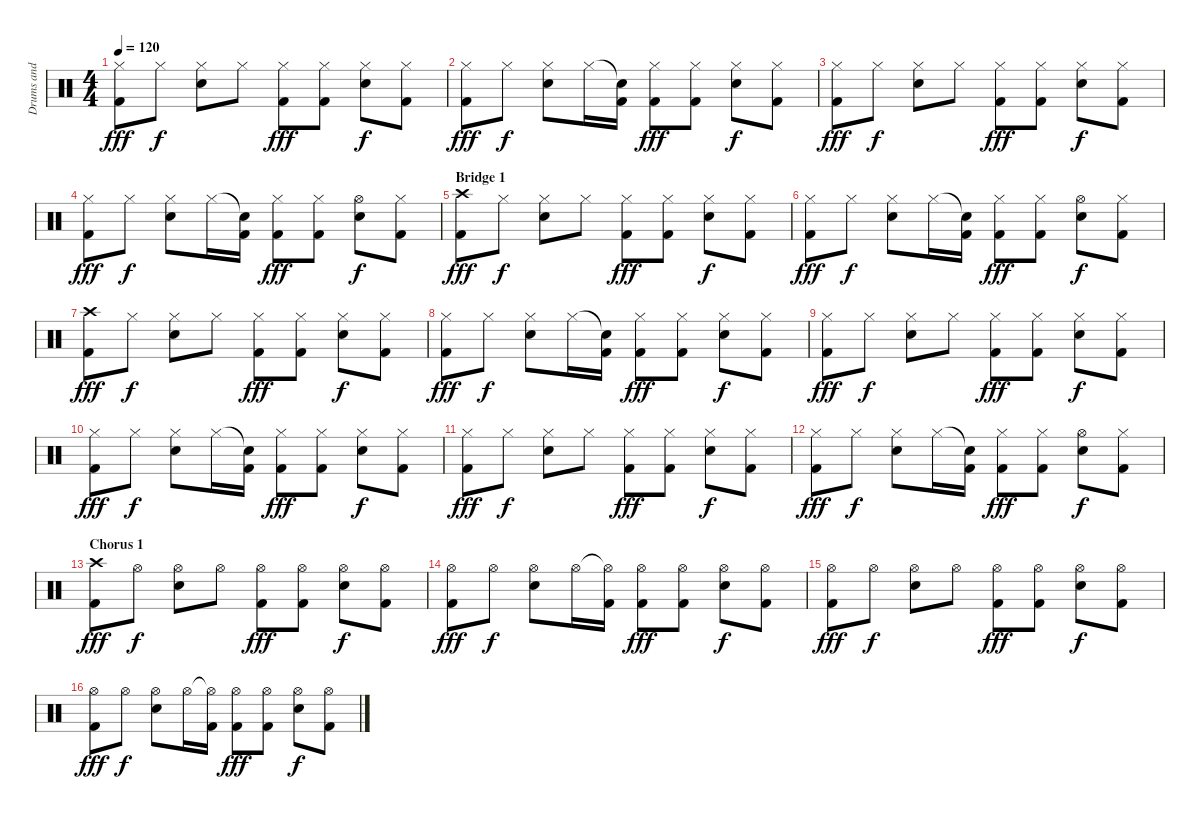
\track ("Drums and Percussion" "Drums and ") {instrument percussion}
\staff {score}
\articulation defaults
\ts (4 4)
\tempo 120
\clef neutral
\ks c
("Hi-Hat (closed)" "Kick (hit) 2").8{dy fff} "Hi-Hat (closed)".8{dy f} ("Hi-Hat (closed)" "Snare (hit) 2").8 "Hi-Hat (closed)".8 ("Hi-Hat (closed)" "Kick (hit) 2").8{dy fff} ("Hi-Hat (closed)" "Kick (hit) 2").8 ("Hi-Hat (closed)" "Snare (hit) 2").8{dy f} ("Hi-Hat (closed)" "Kick (hit) 2").8 |
("Hi-Hat (closed)" "Kick (hit) 2").8{dy fff} "Hi-Hat (closed)".8{dy f} ("Hi-Hat (closed)" "Snare (hit) 2").8 "Hi-Hat (closed)".16 ("Snare (hit)"{t} "Kick (hit) 2").16 ("Hi-Hat (closed)" "Kick (hit) 2").8{dy fff} ("Hi-Hat (closed)" "Kick (hit) 2").8 ("Hi-Hat (closed)" "Snare (hit) 2").8{dy f} ("Hi-Hat (closed)" "Kick (hit) 2").8 |
("Hi-Hat (closed)" "Kick (hit) 2").8{dy fff} "Hi-Hat (closed)".8{dy f} ("Hi-Hat (closed)" "Snare (hit) 2").8 "Hi-Hat (closed)".8 ("Hi-Hat (closed)" "Kick (hit) 2").8{dy fff} ("Hi-Hat (closed)" "Kick (hit) 2").8 ("Hi-Hat (closed)" "Snare (hit) 2").8{dy f} ("Hi-Hat (closed)" "Kick (hit) 2").8 |
("Hi-Hat (closed)" "Kick (hit) 2").8{dy fff} "Hi-Hat (closed)".8{dy f} ("Hi-Hat (closed)" "Snare (hit) 2").8 "Hi-Hat (closed)".16 ("Snare (hit)"{t} "Kick (hit) 2").16 ("Hi-Hat (closed)" "Kick (hit) 2").8{dy fff} ("Hi-Hat (closed)" "Kick (hit) 2").8 ("Hi-Hat (open)" "Snare (hit) 2").8{dy f} ("Hi-Hat (closed)" "Kick (hit) 2").8 |
\section ("" "Bridge 1")
("Crash high (hit)" "Kick (hit) 2").8{dy fff} "Hi-Hat (closed)".8{dy f} ("Hi-Hat (closed)" "Snare (hit) 2").8 "Hi-Hat (closed)".8 ("Hi-Hat (closed)" "Kick (hit) 2").8{dy fff} ("Hi-Hat (closed)" "Kick (hit) 2").8 ("Hi-Hat (closed)" "Snare (hit) 2").8{dy f} ("Hi-Hat (closed)" "Kick (hit) 2").8 |
("Hi-Hat (closed)" "Kick (hit) 2").8{dy fff} "Hi-Hat (closed)".8{dy f} ("Hi-Hat (closed)" "Snare (hit) 2").8 "Hi-Hat (closed)".16 ("Snare (hit)"{t} "Kick (hit) 2").16 ("Hi-Hat (closed)" "Kick (hit) 2").8{dy fff} ("Hi-Hat (closed)" "Kick (hit) 2").8 ("Hi-Hat (open)" "Snare (hit) 2").8{dy f} ("Hi-Hat (closed)" "Kick (hit) 2").8 |
("Crash high (hit)" "Kick (hit) 2").8{dy fff} "Hi-Hat (closed)".8{dy f} ("Hi-Hat (closed)" "Snare (hit) 2").8 "Hi-Hat (closed)".8 ("Hi-Hat (closed)" "Kick (hit) 2").8{dy fff} ("Hi-Hat (closed)" "Kick (hit) 2").8 ("Hi-Hat (closed)" "Snare (hit) 2").8{dy f} ("Hi-Hat (closed)" "Kick (hit) 2").8 |
("Hi-Hat (closed)" "Kick (hit) 2").8{dy fff} "Hi-Hat (closed)".8{dy f} ("Hi-Hat (closed)" "Snare (hit) 2").8 "Hi-Hat (closed)".16 ("Snare (hit)"{t} "Kick (hit) 2").16 ("Hi-Hat (closed)" "Kick (hit) 2").8{dy fff} ("Hi-Hat (closed)" "Kick (hit) 2").8 ("Hi-Hat (closed)" "Snare (hit) 2").8{dy f} ("Hi-Hat (closed)" "Kick (hit) 2").8 |
("Hi-Hat (closed)" "Kick (hit) 2").8{dy fff} "Hi-Hat (closed)".8{dy f} ("Hi-Hat (closed)" "Snare (hit) 2").8 "Hi-Hat (closed)".8 ("Hi-Hat (closed)" "Kick (hit) 2").8{dy fff} ("Hi-Hat (closed)" "Kick (hit) 2").8 ("Hi-Hat (closed)" "Snare (hit) 2").8{dy f} ("Hi-Hat (closed)" "Kick (hit) 2").8 |
("Hi-Hat (closed)" "Kick (hit) 2").8{dy fff} "Hi-Hat (closed)".8{dy f} ("Hi-Hat (closed)" "Snare (hit) 2").8 "Hi-Hat (closed)".16 ("Snare (hit)"{t} "Kick (hit) 2").16 ("Hi-Hat (closed)" "Kick (hit) 2").8{dy fff} ("Hi-Hat (closed)" "Kick (hit) 2").8 ("Hi-Hat (closed)" "Snare (hit) 2").8{dy f} ("Hi-Hat (closed)" "Kick (hit) 2").8 |
("Hi-Hat (closed)" "Kick (hit) 2").8{dy fff} "Hi-Hat (closed)".8{dy f} ("Hi-Hat (closed)" "Snare (hit) 2").8 "Hi-Hat (closed)".8 ("Hi-Hat (closed)" "Kick (hit) 2").8{dy fff} ("Hi-Hat (closed)" "Kick (hit) 2").8 ("Hi-Hat (closed)" "Snare (hit) 2").8{dy f} ("Hi-Hat (closed)" "Kick (hit) 2").8 |
("Hi-Hat (closed)" "Kick (hit) 2").8{dy fff} "Hi-Hat (closed)".8{dy f} ("Hi-Hat (closed)" "Snare (hit) 2").8 "Hi-Hat (closed)".16 ("Snare (hit)"{t} "Kick (hit) 2").16 ("Hi-Hat (closed)" "Kick (hit) 2").8{dy fff} ("Hi-Hat (closed)" "Kick (hit) 2").8 ("Hi-Hat (open)" "Snare (hit) 2").8{dy f} ("Hi-Hat (closed)" "Kick (hit) 2").8 |
\section ("" "Chorus 1")
("Crash high (hit)" "Kick (hit) 2").8{dy fff} "Hi-Hat (open)".8{dy f} ("Hi-Hat (open)" "Snare (hit) 2").8 "Hi-Hat (open)".8 ("Hi-Hat (open)" "Kick (hit) 2").8{dy fff} ("Hi-Hat (open)" "Kick (hit) 2").8 ("Hi-Hat (open)" "Snare (hit) 2").8{dy f} ("Hi-Hat (open)" "Kick (hit) 2").8 |
("Hi-Hat (open)" "Kick (hit) 2").8{dy fff} "Hi-Hat (open)".8{dy f} ("Hi-Hat (open)" "Snare (hit) 2").8 "Hi-Hat (open)".16 ("Hi-Hat (open)"{t} "Kick (hit) 2").16 ("Hi-Hat (open)" "Kick (hit) 2").8{dy fff} ("Hi-Hat (open)" "Kick (hit) 2").8 ("Hi-Hat (open)" "Snare (hit) 2").8{dy f} ("Hi-Hat (open)" "Kick (hit) 2").8 |
("Hi-Hat (open)" "Kick (hit) 2").8{dy fff} "Hi-Hat (open)".8{dy f} ("Hi-Hat (open)" "Snare (hit) 2").8 "Hi-Hat (open)".8 ("Hi-Hat (open)" "Kick (hit) 2").8{dy fff} ("Hi-Hat (open)" "Kick (hit) 2").8 ("Hi-Hat (open)" "Snare (hit) 2").8{dy f} ("Hi-Hat (open)" "Kick (hit) 2").8 |
("Hi-Hat (open)" "Kick (hit) 2").8{dy fff} "Hi-Hat (open)".8{dy f} ("Hi-Hat (open)" "Snare (hit) 2").8 "Hi-Hat (open)".16 ("Hi-Hat (open)"{t} "Kick (hit) 2").16 ("Hi-Hat (open)" "Kick (hit) 2").8{dy fff} ("Hi-Hat (open)" "Kick (hit) 2").8 ("Hi-Hat (open)" "Snare (hit) 2").8{dy f} ("Hi-Hat (open)" "Kick (hit) 2").8
